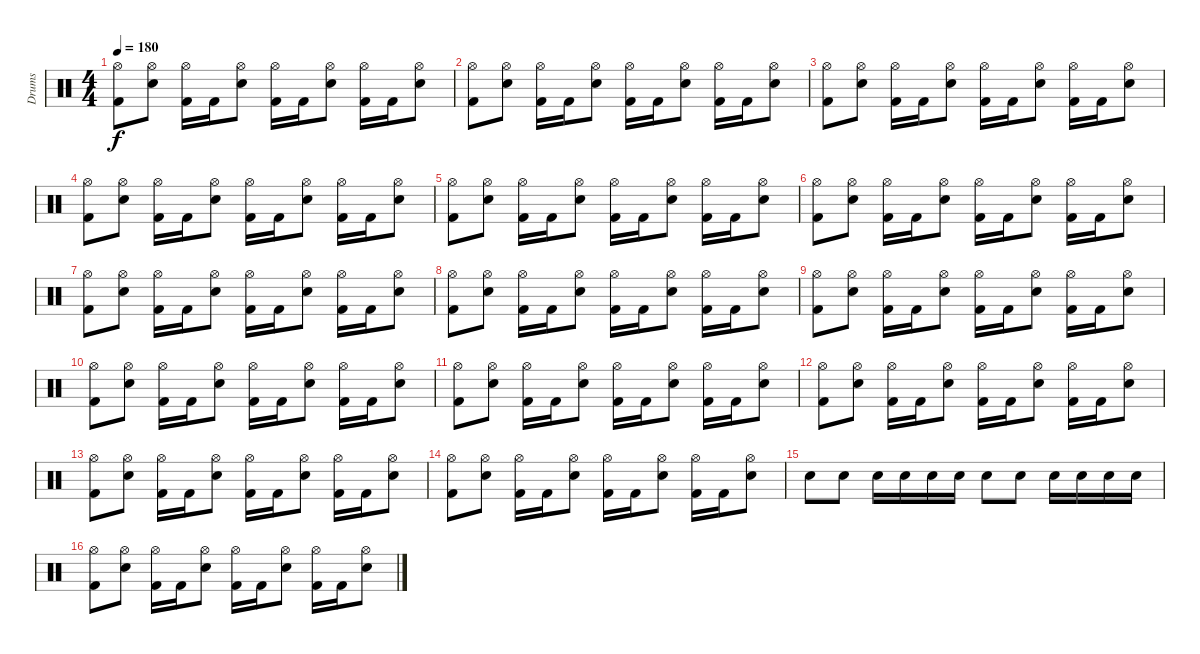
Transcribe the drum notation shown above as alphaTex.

\track ("Drums" "Drums") {instrument percussion}
\staff {score}
\articulation defaults
\ts (4 4)
\tempo 180
\clef neutral
\ks c
("Hi-Hat (open)" "Kick (hit) 2").8{dy f} ("Hi-Hat (open)" "Electric Snare (hit)").8 ("Hi-Hat (open)" "Kick (hit) 2").16 "Kick (hit) 2".16 ("Hi-Hat (open)" "Electric Snare (hit)").8 ("Hi-Hat (open)" "Kick (hit) 2").16 "Kick (hit) 2".16 ("Hi-Hat (open)" "Electric Snare (hit)").8 ("Hi-Hat (open)" "Kick (hit) 2").16 "Kick (hit) 2".16 ("Hi-Hat (open)" "Electric Snare (hit)").8 |
("Hi-Hat (open)" "Kick (hit) 2").8 ("Hi-Hat (open)" "Electric Snare (hit)").8 ("Hi-Hat (open)" "Kick (hit) 2").16 "Kick (hit) 2".16 ("Hi-Hat (open)" "Electric Snare (hit)").8 ("Hi-Hat (open)" "Kick (hit) 2").16 "Kick (hit) 2".16 ("Hi-Hat (open)" "Electric Snare (hit)").8 ("Hi-Hat (open)" "Kick (hit) 2").16 "Kick (hit) 2".16 ("Hi-Hat (open)" "Electric Snare (hit)").8 |
("Hi-Hat (open)" "Kick (hit) 2").8 ("Hi-Hat (open)" "Electric Snare (hit)").8 ("Hi-Hat (open)" "Kick (hit) 2").16 "Kick (hit) 2".16 ("Hi-Hat (open)" "Electric Snare (hit)").8 ("Hi-Hat (open)" "Kick (hit) 2").16 "Kick (hit) 2".16 ("Hi-Hat (open)" "Electric Snare (hit)").8 ("Hi-Hat (open)" "Kick (hit) 2").16 "Kick (hit) 2".16 ("Hi-Hat (open)" "Electric Snare (hit)").8 |
("Hi-Hat (open)" "Kick (hit) 2").8 ("Hi-Hat (open)" "Electric Snare (hit)").8 ("Hi-Hat (open)" "Kick (hit) 2").16 "Kick (hit) 2".16 ("Hi-Hat (open)" "Electric Snare (hit)").8 ("Hi-Hat (open)" "Kick (hit) 2").16 "Kick (hit) 2".16 ("Hi-Hat (open)" "Electric Snare (hit)").8 ("Hi-Hat (open)" "Kick (hit) 2").16 "Kick (hit) 2".16 ("Hi-Hat (open)" "Electric Snare (hit)").8 |
("Hi-Hat (open)" "Kick (hit) 2").8 ("Hi-Hat (open)" "Electric Snare (hit)").8 ("Hi-Hat (open)" "Kick (hit) 2").16 "Kick (hit) 2".16 ("Hi-Hat (open)" "Electric Snare (hit)").8 ("Hi-Hat (open)" "Kick (hit) 2").16 "Kick (hit) 2".16 ("Hi-Hat (open)" "Electric Snare (hit)").8 ("Hi-Hat (open)" "Kick (hit) 2").16 "Kick (hit) 2".16 ("Hi-Hat (open)" "Electric Snare (hit)").8 |
("Hi-Hat (open)" "Kick (hit) 2").8 ("Hi-Hat (open)" "Electric Snare (hit)").8 ("Hi-Hat (open)" "Kick (hit) 2").16 "Kick (hit) 2".16 ("Hi-Hat (open)" "Electric Snare (hit)").8 ("Hi-Hat (open)" "Kick (hit) 2").16 "Kick (hit) 2".16 ("Hi-Hat (open)" "Electric Snare (hit)").8 ("Hi-Hat (open)" "Kick (hit) 2").16 "Kick (hit) 2".16 ("Hi-Hat (open)" "Electric Snare (hit)").8 |
("Hi-Hat (open)" "Kick (hit) 2").8 ("Hi-Hat (open)" "Electric Snare (hit)").8 ("Hi-Hat (open)" "Kick (hit) 2").16 "Kick (hit) 2".16 ("Hi-Hat (open)" "Electric Snare (hit)").8 ("Hi-Hat (open)" "Kick (hit) 2").16 "Kick (hit) 2".16 ("Hi-Hat (open)" "Electric Snare (hit)").8 ("Hi-Hat (open)" "Kick (hit) 2").16 "Kick (hit) 2".16 ("Hi-Hat (open)" "Electric Snare (hit)").8 |
("Hi-Hat (open)" "Kick (hit) 2").8 ("Hi-Hat (open)" "Electric Snare (hit)").8 ("Hi-Hat (open)" "Kick (hit) 2").16 "Kick (hit) 2".16 ("Hi-Hat (open)" "Electric Snare (hit)").8 ("Hi-Hat (open)" "Kick (hit) 2").16 "Kick (hit) 2".16 ("Hi-Hat (open)" "Electric Snare (hit)").8 ("Hi-Hat (open)" "Kick (hit) 2").16 "Kick (hit) 2".16 ("Hi-Hat (open)" "Electric Snare (hit)").8 |
("Hi-Hat (open)" "Kick (hit) 2").8 ("Hi-Hat (open)" "Electric Snare (hit)").8 ("Hi-Hat (open)" "Kick (hit) 2").16 "Kick (hit) 2".16 ("Hi-Hat (open)" "Electric Snare (hit)").8 ("Hi-Hat (open)" "Kick (hit) 2").16 "Kick (hit) 2".16 ("Hi-Hat (open)" "Electric Snare (hit)").8 ("Hi-Hat (open)" "Kick (hit) 2").16 "Kick (hit) 2".16 ("Hi-Hat (open)" "Electric Snare (hit)").8 |
("Hi-Hat (open)" "Kick (hit) 2").8 ("Hi-Hat (open)" "Electric Snare (hit)").8 ("Hi-Hat (open)" "Kick (hit) 2").16 "Kick (hit) 2".16 ("Hi-Hat (open)" "Electric Snare (hit)").8 ("Hi-Hat (open)" "Kick (hit) 2").16 "Kick (hit) 2".16 ("Hi-Hat (open)" "Electric Snare (hit)").8 ("Hi-Hat (open)" "Kick (hit) 2").16 "Kick (hit) 2".16 ("Hi-Hat (open)" "Electric Snare (hit)").8 |
("Hi-Hat (open)" "Kick (hit) 2").8 ("Hi-Hat (open)" "Electric Snare (hit)").8 ("Hi-Hat (open)" "Kick (hit) 2").16 "Kick (hit) 2".16 ("Hi-Hat (open)" "Electric Snare (hit)").8 ("Hi-Hat (open)" "Kick (hit) 2").16 "Kick (hit) 2".16 ("Hi-Hat (open)" "Electric Snare (hit)").8 ("Hi-Hat (open)" "Kick (hit) 2").16 "Kick (hit) 2".16 ("Hi-Hat (open)" "Electric Snare (hit)").8 |
("Hi-Hat (open)" "Kick (hit) 2").8 ("Hi-Hat (open)" "Electric Snare (hit)").8 ("Hi-Hat (open)" "Kick (hit) 2").16 "Kick (hit) 2".16 ("Hi-Hat (open)" "Electric Snare (hit)").8 ("Hi-Hat (open)" "Kick (hit) 2").16 "Kick (hit) 2".16 ("Hi-Hat (open)" "Electric Snare (hit)").8 ("Hi-Hat (open)" "Kick (hit) 2").16 "Kick (hit) 2".16 ("Hi-Hat (open)" "Electric Snare (hit)").8 |
("Hi-Hat (open)" "Kick (hit) 2").8 ("Hi-Hat (open)" "Electric Snare (hit)").8 ("Hi-Hat (open)" "Kick (hit) 2").16 "Kick (hit) 2".16 ("Hi-Hat (open)" "Electric Snare (hit)").8 ("Hi-Hat (open)" "Kick (hit) 2").16 "Kick (hit) 2".16 ("Hi-Hat (open)" "Electric Snare (hit)").8 ("Hi-Hat (open)" "Kick (hit) 2").16 "Kick (hit) 2".16 ("Hi-Hat (open)" "Electric Snare (hit)").8 |
("Hi-Hat (open)" "Kick (hit) 2").8 ("Hi-Hat (open)" "Electric Snare (hit)").8 ("Hi-Hat (open)" "Kick (hit) 2").16 "Kick (hit) 2".16 ("Hi-Hat (open)" "Electric Snare (hit)").8 ("Hi-Hat (open)" "Kick (hit) 2").16 "Kick (hit) 2".16 ("Hi-Hat (open)" "Electric Snare (hit)").8 ("Hi-Hat (open)" "Kick (hit) 2").16 "Kick (hit) 2".16 ("Hi-Hat (open)" "Electric Snare (hit)").8 |
"Electric Snare (hit)".8 "Electric Snare (hit)".8 "Electric Snare (hit)".16 "Electric Snare (hit)".16 "Electric Snare (hit)".16 "Electric Snare (hit)".16 "Electric Snare (hit)".8 "Electric Snare (hit)".8 "Electric Snare (hit)".16 "Electric Snare (hit)".16 "Electric Snare (hit)".16 "Electric Snare (hit)".16 |
("Hi-Hat (open)" "Kick (hit) 2").8 ("Hi-Hat (open)" "Electric Snare (hit)").8 ("Hi-Hat (open)" "Kick (hit) 2").16 "Kick (hit) 2".16 ("Hi-Hat (open)" "Electric Snare (hit)").8 ("Hi-Hat (open)" "Kick (hit) 2").16 "Kick (hit) 2".16 ("Hi-Hat (open)" "Electric Snare (hit)").8 ("Hi-Hat (open)" "Kick (hit) 2").16 "Kick (hit) 2".16 ("Hi-Hat (open)" "Electric Snare (hit)").8
